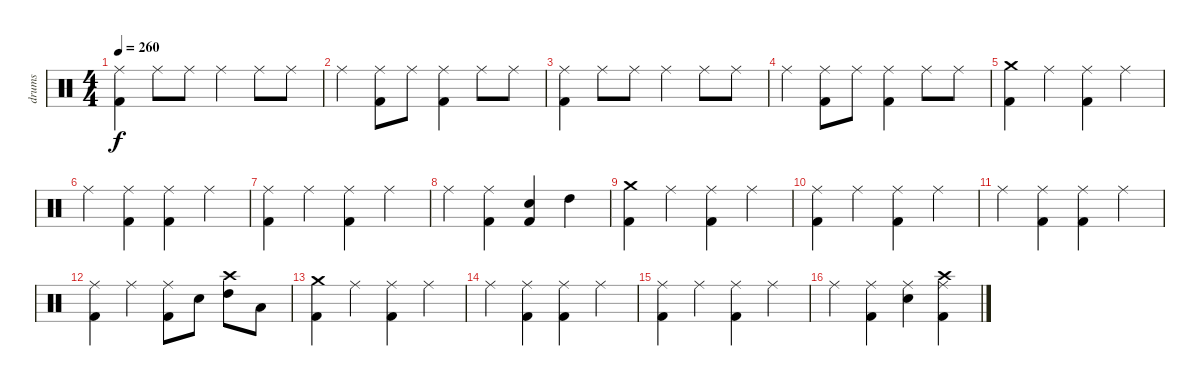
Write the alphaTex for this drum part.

\track ("drums" "drums") {instrument percussion}
\staff {score}
\articulation defaults
\ts (4 4)
\tempo 260
\clef neutral
\ks c
("Ride (middle)" "Kick (hit) 2").4{dy f} "Ride (middle)".8 "Ride (middle)".8 "Ride (middle)".4 "Ride (middle)".8 "Ride (middle)".8 |
"Ride (middle)".4 ("Ride (middle)" "Kick (hit) 2").8 "Ride (middle)".8 ("Ride (middle)" "Kick (hit) 2").4 "Ride (middle)".8 "Ride (middle)".8 |
("Ride (middle)" "Kick (hit) 2").4 "Ride (middle)".8 "Ride (middle)".8 "Ride (middle)".4 "Ride (middle)".8 "Ride (middle)".8 |
"Ride (middle)".4 ("Ride (middle)" "Kick (hit) 2").8 "Ride (middle)".8 ("Ride (middle)" "Kick (hit) 2").4 "Ride (middle)".8 "Ride (middle)".8 |
("Crash medium (hit)" "Kick (hit) 2").4 "Ride (middle)".4 ("Ride (middle)" "Kick (hit) 2").4 "Ride (middle)".4 |
"Ride (middle)".4 ("Ride (middle)" "Kick (hit) 2").4 ("Ride (middle)" "Kick (hit) 2").4 "Ride (middle)".4 |
("Ride (middle)" "Kick (hit) 2").4 "Ride (middle)".4 ("Ride (middle)" "Kick (hit) 2").4 "Ride (middle)".4 |
"Ride (middle)".4 ("Ride (middle)" "Kick (hit) 2").4 ("Electric Snare (hit)" "Kick (hit) 2").4 "High Tom (hit)".4 |
("Crash medium (hit)" "Kick (hit) 2").4 "Ride (middle)".4 ("Ride (middle)" "Kick (hit) 2").4 "Ride (middle)".4 |
("Ride (middle)" "Kick (hit) 2").4 "Ride (middle)".4 ("Ride (middle)" "Kick (hit) 2").4 "Ride (middle)".4 |
"Ride (middle)".4 ("Ride (middle)" "Kick (hit) 2").4 ("Ride (middle)" "Kick (hit) 2").4 "Ride (middle)".4 |
("Ride (middle)" "Kick (hit) 2").4 "Ride (middle)".4 ("Ride (middle)" "Kick (hit) 2").8 "Electric Snare (hit)".8 ("Crash high (hit)" "High Tom (hit)").8 "Low Tom (hit)".8 |
("Crash medium (hit)" "Kick (hit) 2").4 "Ride (middle)".4 ("Ride (middle)" "Kick (hit) 2").4 "Ride (middle)".4 |
"Ride (middle)".4 ("Ride (middle)" "Kick (hit) 2").4 ("Ride (middle)" "Kick (hit) 2").4 "Ride (middle)".4 |
("Ride (middle)" "Kick (hit) 2").4 "Ride (middle)".4 ("Ride (middle)" "Kick (hit) 2").4 "Ride (middle)".4 |
"Ride (middle)".4 ("Ride (middle)" "Kick (hit) 2").4 ("Ride (middle)" "Electric Snare (hit)").4 ("Crash high (hit)" "Ride (middle)" "Kick (hit) 2").4
